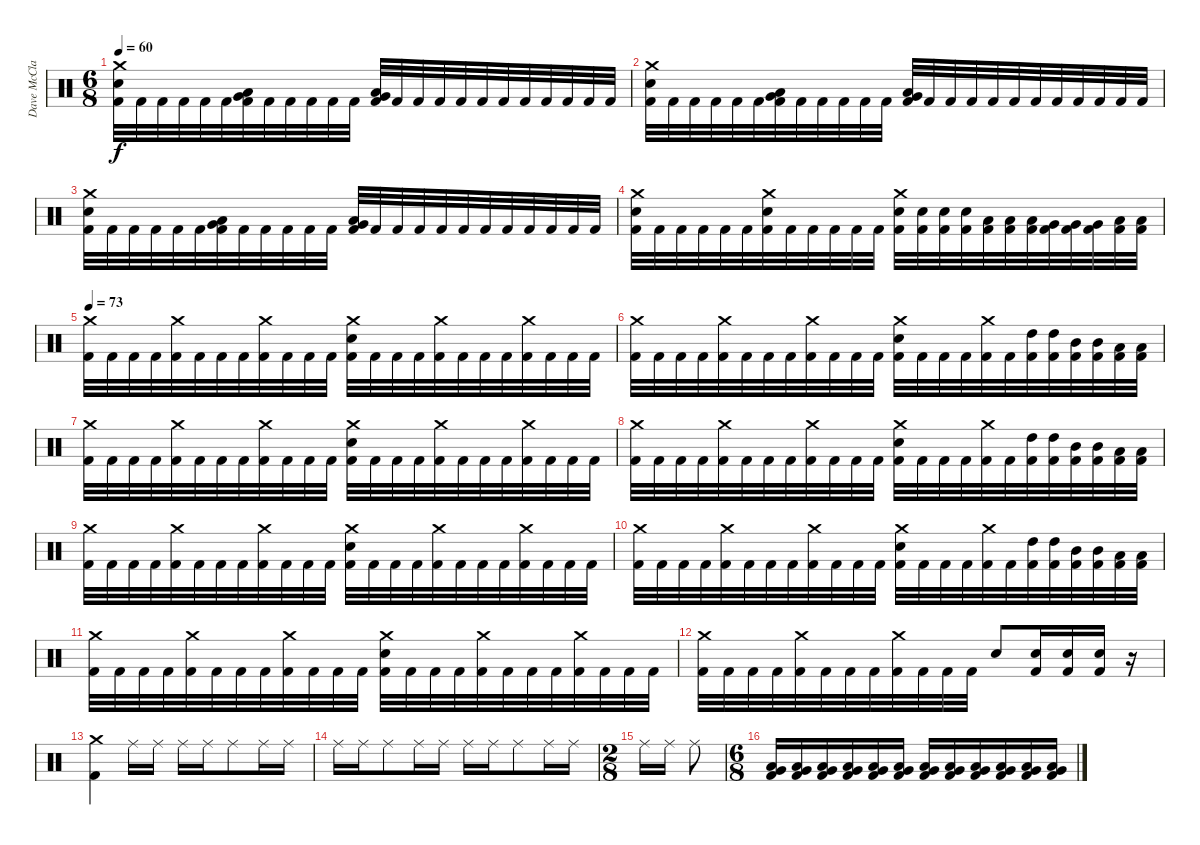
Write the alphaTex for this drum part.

\track ("Dave McClain" "Dave McCla") {instrument percussion}
\staff {score}
\articulation defaults
\ts (6 8)
\tempo 60
\clef neutral
\ks c
("Crash medium (hit)" "Snare (hit) 2" "Kick (hit) 2").32{dy f} "Kick (hit) 2".32 "Kick (hit) 2".32 "Kick (hit) 2".32 "Kick (hit) 2".32 "Kick (hit) 2".32 ("Very Low Tom (hit)" "Low Floor Tom (hit)" "Kick (hit) 2").32 "Kick (hit) 2".32 "Kick (hit) 2".32 "Kick (hit) 2".32 "Kick (hit) 2".32 "Kick (hit) 2".32 ("Very Low Tom (hit)" "Low Floor Tom (hit)" "Kick (hit) 2").32 "Kick (hit) 2".32 "Kick (hit) 2".32 "Kick (hit) 2".32 "Kick (hit) 2".32 "Kick (hit) 2".32 "Kick (hit) 2".32 "Kick (hit) 2".32 "Kick (hit) 2".32 "Kick (hit) 2".32 "Kick (hit) 2".32 "Kick (hit) 2".32 |
("Crash medium (hit)" "Snare (hit) 2" "Kick (hit) 2").32 "Kick (hit) 2".32 "Kick (hit) 2".32 "Kick (hit) 2".32 "Kick (hit) 2".32 "Kick (hit) 2".32 ("Very Low Tom (hit)" "Low Floor Tom (hit)" "Kick (hit) 2").32 "Kick (hit) 2".32 "Kick (hit) 2".32 "Kick (hit) 2".32 "Kick (hit) 2".32 "Kick (hit) 2".32 ("Very Low Tom (hit)" "Low Floor Tom (hit)" "Kick (hit) 2").32 "Kick (hit) 2".32 "Kick (hit) 2".32 "Kick (hit) 2".32 "Kick (hit) 2".32 "Kick (hit) 2".32 "Kick (hit) 2".32 "Kick (hit) 2".32 "Kick (hit) 2".32 "Kick (hit) 2".32 "Kick (hit) 2".32 "Kick (hit) 2".32 |
("Crash medium (hit)" "Snare (hit) 2" "Kick (hit) 2").32 "Kick (hit) 2".32 "Kick (hit) 2".32 "Kick (hit) 2".32 "Kick (hit) 2".32 "Kick (hit) 2".32 ("Very Low Tom (hit)" "Low Floor Tom (hit)" "Kick (hit) 2").32 "Kick (hit) 2".32 "Kick (hit) 2".32 "Kick (hit) 2".32 "Kick (hit) 2".32 "Kick (hit) 2".32 ("Very Low Tom (hit)" "Low Floor Tom (hit)" "Kick (hit) 2").32 "Kick (hit) 2".32 "Kick (hit) 2".32 "Kick (hit) 2".32 "Kick (hit) 2".32 "Kick (hit) 2".32 "Kick (hit) 2".32 "Kick (hit) 2".32 "Kick (hit) 2".32 "Kick (hit) 2".32 "Kick (hit) 2".32 "Kick (hit) 2".32 |
("Crash medium (hit)" "Snare (hit) 2" "Kick (hit) 2").32 "Kick (hit) 2".32 "Kick (hit) 2".32 "Kick (hit) 2".32 "Kick (hit) 2".32 "Kick (hit) 2".32 ("Crash medium (hit)" "Snare (hit) 2" "Kick (hit) 2").32 "Kick (hit) 2".32 "Kick (hit) 2".32 "Kick (hit) 2".32 "Kick (hit) 2".32 "Kick (hit) 2".32 ("Crash medium (hit)" "Snare (hit) 2" "Kick (hit) 2").32 ("Snare (hit) 2" "Kick (hit) 2").32 ("Snare (hit) 2" "Kick (hit) 2").32 ("Snare (hit) 2" "Kick (hit) 2").32 ("Low Tom (hit)" "Kick (hit) 2").32 ("Low Tom (hit)" "Kick (hit) 2").32 ("Low Tom (hit)" "Kick (hit) 2").32 ("Very Low Tom (hit)" "Kick (hit) 2").32 ("Very Low Tom (hit)" "Kick (hit) 2").32 ("Very Low Tom (hit)" "Kick (hit) 2").32 ("Low Floor Tom (hit)" "Kick (hit) 2").32 ("Low Floor Tom (hit)" "Kick (hit) 2").32 |
\tempo 73
("Crash medium (hit)" "Kick (hit) 2").32 "Kick (hit) 2".32 "Kick (hit) 2".32 "Kick (hit) 2".32 ("Crash medium (hit)" "Kick (hit) 2").32 "Kick (hit) 2".32 "Kick (hit) 2".32 "Kick (hit) 2".32 ("Crash medium (hit)" "Kick (hit) 2").32 "Kick (hit) 2".32 "Kick (hit) 2".32 "Kick (hit) 2".32 ("Crash medium (hit)" "Snare (hit) 2" "Kick (hit) 2").32 "Kick (hit) 2".32 "Kick (hit) 2".32 "Kick (hit) 2".32 ("Crash medium (hit)" "Kick (hit) 2").32 "Kick (hit) 2".32 "Kick (hit) 2".32 "Kick (hit) 2".32 ("Crash medium (hit)" "Kick (hit) 2").32 "Kick (hit) 2".32 "Kick (hit) 2".32 "Kick (hit) 2".32 |
("Crash medium (hit)" "Kick (hit) 2").32 "Kick (hit) 2".32 "Kick (hit) 2".32 "Kick (hit) 2".32 ("Crash medium (hit)" "Kick (hit) 2").32 "Kick (hit) 2".32 "Kick (hit) 2".32 "Kick (hit) 2".32 ("Crash medium (hit)" "Kick (hit) 2").32 "Kick (hit) 2".32 "Kick (hit) 2".32 "Kick (hit) 2".32 ("Crash medium (hit)" "Snare (hit) 2" "Kick (hit) 2").32 "Kick (hit) 2".32 "Kick (hit) 2".32 "Kick (hit) 2".32 ("Crash medium (hit)" "Kick (hit) 2").32 "Kick (hit) 2".32 ("High Tom (hit)" "Kick (hit) 2").32 ("High Tom (hit)" "Kick (hit) 2").32 ("Mid Tom (hit)" "Kick (hit) 2").32 ("Mid Tom (hit)" "Kick (hit) 2").32 ("Low Tom (hit)" "Kick (hit) 2").32 ("Low Tom (hit)" "Kick (hit) 2").32 |
("Crash medium (hit)" "Kick (hit) 2").32 "Kick (hit) 2".32 "Kick (hit) 2".32 "Kick (hit) 2".32 ("Crash medium (hit)" "Kick (hit) 2").32 "Kick (hit) 2".32 "Kick (hit) 2".32 "Kick (hit) 2".32 ("Crash medium (hit)" "Kick (hit) 2").32 "Kick (hit) 2".32 "Kick (hit) 2".32 "Kick (hit) 2".32 ("Crash medium (hit)" "Snare (hit) 2" "Kick (hit) 2").32 "Kick (hit) 2".32 "Kick (hit) 2".32 "Kick (hit) 2".32 ("Crash medium (hit)" "Kick (hit) 2").32 "Kick (hit) 2".32 "Kick (hit) 2".32 "Kick (hit) 2".32 ("Crash medium (hit)" "Kick (hit) 2").32 "Kick (hit) 2".32 "Kick (hit) 2".32 "Kick (hit) 2".32 |
("Crash medium (hit)" "Kick (hit) 2").32 "Kick (hit) 2".32 "Kick (hit) 2".32 "Kick (hit) 2".32 ("Crash medium (hit)" "Kick (hit) 2").32 "Kick (hit) 2".32 "Kick (hit) 2".32 "Kick (hit) 2".32 ("Crash medium (hit)" "Kick (hit) 2").32 "Kick (hit) 2".32 "Kick (hit) 2".32 "Kick (hit) 2".32 ("Crash medium (hit)" "Snare (hit) 2" "Kick (hit) 2").32 "Kick (hit) 2".32 "Kick (hit) 2".32 "Kick (hit) 2".32 ("Crash medium (hit)" "Kick (hit) 2").32 "Kick (hit) 2".32 ("High Tom (hit)" "Kick (hit) 2").32 ("High Tom (hit)" "Kick (hit) 2").32 ("Mid Tom (hit)" "Kick (hit) 2").32 ("Mid Tom (hit)" "Kick (hit) 2").32 ("Low Tom (hit)" "Kick (hit) 2").32 ("Low Tom (hit)" "Kick (hit) 2").32 |
("Crash medium (hit)" "Kick (hit) 2").32 "Kick (hit) 2".32 "Kick (hit) 2".32 "Kick (hit) 2".32 ("Crash medium (hit)" "Kick (hit) 2").32 "Kick (hit) 2".32 "Kick (hit) 2".32 "Kick (hit) 2".32 ("Crash medium (hit)" "Kick (hit) 2").32 "Kick (hit) 2".32 "Kick (hit) 2".32 "Kick (hit) 2".32 ("Crash medium (hit)" "Snare (hit) 2" "Kick (hit) 2").32 "Kick (hit) 2".32 "Kick (hit) 2".32 "Kick (hit) 2".32 ("Crash medium (hit)" "Kick (hit) 2").32 "Kick (hit) 2".32 "Kick (hit) 2".32 "Kick (hit) 2".32 ("Crash medium (hit)" "Kick (hit) 2").32 "Kick (hit) 2".32 "Kick (hit) 2".32 "Kick (hit) 2".32 |
("Crash medium (hit)" "Kick (hit) 2").32 "Kick (hit) 2".32 "Kick (hit) 2".32 "Kick (hit) 2".32 ("Crash medium (hit)" "Kick (hit) 2").32 "Kick (hit) 2".32 "Kick (hit) 2".32 "Kick (hit) 2".32 ("Crash medium (hit)" "Kick (hit) 2").32 "Kick (hit) 2".32 "Kick (hit) 2".32 "Kick (hit) 2".32 ("Crash medium (hit)" "Snare (hit) 2" "Kick (hit) 2").32 "Kick (hit) 2".32 "Kick (hit) 2".32 "Kick (hit) 2".32 ("Crash medium (hit)" "Kick (hit) 2").32 "Kick (hit) 2".32 ("High Tom (hit)" "Kick (hit) 2").32 ("High Tom (hit)" "Kick (hit) 2").32 ("Mid Tom (hit)" "Kick (hit) 2").32 ("Mid Tom (hit)" "Kick (hit) 2").32 ("Low Tom (hit)" "Kick (hit) 2").32 ("Low Tom (hit)" "Kick (hit) 2").32 |
("Crash medium (hit)" "Kick (hit) 2").32 "Kick (hit) 2".32 "Kick (hit) 2".32 "Kick (hit) 2".32 ("Crash medium (hit)" "Kick (hit) 2").32 "Kick (hit) 2".32 "Kick (hit) 2".32 "Kick (hit) 2".32 ("Crash medium (hit)" "Kick (hit) 2").32 "Kick (hit) 2".32 "Kick (hit) 2".32 "Kick (hit) 2".32 ("Crash medium (hit)" "Snare (hit) 2" "Kick (hit) 2").32 "Kick (hit) 2".32 "Kick (hit) 2".32 "Kick (hit) 2".32 ("Crash medium (hit)" "Kick (hit) 2").32 "Kick (hit) 2".32 "Kick (hit) 2".32 "Kick (hit) 2".32 ("Crash medium (hit)" "Kick (hit) 2").32 "Kick (hit) 2".32 "Kick (hit) 2".32 "Kick (hit) 2".32 |
("Crash medium (hit)" "Kick (hit) 2").32 "Kick (hit) 2".32 "Kick (hit) 2".32 "Kick (hit) 2".32 ("Crash medium (hit)" "Kick (hit) 2").32 "Kick (hit) 2".32 "Kick (hit) 2".32 "Kick (hit) 2".32 ("Crash medium (hit)" "Kick (hit) 2").32 "Kick (hit) 2".32 "Kick (hit) 2".32 "Kick (hit) 2".32 "Snare (hit) 2".8 ("Snare (hit) 2" "Kick (hit) 2").16 ("Snare (hit) 2" "Kick (hit) 2").16 ("Snare (hit) 2" "Kick (hit) 2").16 r.16 |
("Crash medium (hit)" "Kick (hit) 2").4 "Ride (middle)".16 "Ride (middle)".16 "Ride (middle)".16 "Ride (middle)".16 "Ride (middle)".8 "Ride (middle)".16 "Ride (middle)".16 |
"Ride (middle)".16 "Ride (middle)".16 "Ride (middle)".8 "Ride (middle)".16 "Ride (middle)".16 "Ride (middle)".16 "Ride (middle)".16 "Ride (middle)".8 "Ride (middle)".16 "Ride (middle)".16 |
\ts (2 8)
"Ride (middle)".16 "Ride (middle)".16 "Ride (middle)".8 |
\ts (6 8)
("Very Low Tom (hit)" "Low Floor Tom (hit)" "Kick (hit) 2").16 ("Very Low Tom (hit)" "Low Floor Tom (hit)" "Kick (hit) 2").16 ("Very Low Tom (hit)" "Low Floor Tom (hit)" "Kick (hit) 2").16 ("Very Low Tom (hit)" "Low Floor Tom (hit)" "Kick (hit) 2").16 ("Very Low Tom (hit)" "Low Floor Tom (hit)" "Kick (hit) 2").16 ("Very Low Tom (hit)" "Low Floor Tom (hit)" "Kick (hit) 2").16 ("Very Low Tom (hit)" "Low Floor Tom (hit)" "Kick (hit) 2").16 ("Very Low Tom (hit)" "Low Floor Tom (hit)" "Kick (hit) 2").16 ("Very Low Tom (hit)" "Low Floor Tom (hit)" "Kick (hit) 2").16 ("Very Low Tom (hit)" "Low Floor Tom (hit)" "Kick (hit) 2").16 ("Very Low Tom (hit)" "Low Floor Tom (hit)" "Kick (hit) 2").16 ("Very Low Tom (hit)" "Low Floor Tom (hit)" "Kick (hit) 2").16
